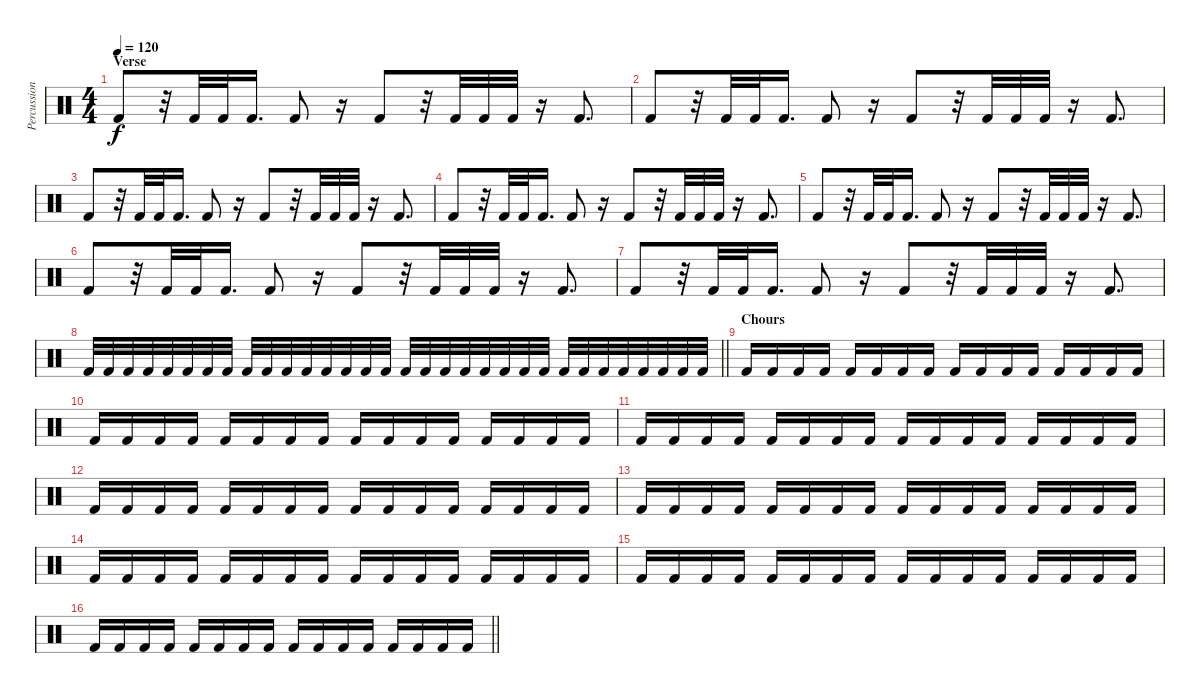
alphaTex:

\track ("Percussioni" "Percussion") {instrument percussion}
\staff
\articulation defaults
\ts (4 4)
\section ("" "Verse")
\tempo 120
\clef neutral
\ks c "Kick (hit) 2".8{dy f}
r.32 "Kick (hit) 2".32 "Kick (hit) 2".32 "Kick (hit) 2".16{d} "Kick (hit) 2".8 r.16 "Kick (hit) 2".8 r.32 "Kick (hit) 2".32 "Kick (hit) 2".32 "Kick (hit) 2".32 r.16 "Kick (hit) 2".8{d} |
"Kick (hit) 2".8 r.32 "Kick (hit) 2".32 "Kick (hit) 2".32 "Kick (hit) 2".16{d} "Kick (hit) 2".8 r.16 "Kick (hit) 2".8 r.32 "Kick (hit) 2".32 "Kick (hit) 2".32 "Kick (hit) 2".32 r.16 "Kick (hit) 2".8{d} |
"Kick (hit) 2".8 r.32 "Kick (hit) 2".32 "Kick (hit) 2".32 "Kick (hit) 2".16{d} "Kick (hit) 2".8 r.16 "Kick (hit) 2".8 r.32 "Kick (hit) 2".32 "Kick (hit) 2".32 "Kick (hit) 2".32 r.16 "Kick (hit) 2".8{d} |
"Kick (hit) 2".8 r.32 "Kick (hit) 2".32 "Kick (hit) 2".32 "Kick (hit) 2".16{d} "Kick (hit) 2".8 r.16 "Kick (hit) 2".8 r.32 "Kick (hit) 2".32 "Kick (hit) 2".32 "Kick (hit) 2".32 r.16 "Kick (hit) 2".8{d} |
"Kick (hit) 2".8 r.32 "Kick (hit) 2".32 "Kick (hit) 2".32 "Kick (hit) 2".16{d} "Kick (hit) 2".8 r.16 "Kick (hit) 2".8 r.32 "Kick (hit) 2".32 "Kick (hit) 2".32 "Kick (hit) 2".32 r.16 "Kick (hit) 2".8{d} |
"Kick (hit) 2".8 r.32 "Kick (hit) 2".32 "Kick (hit) 2".32 "Kick (hit) 2".16{d} "Kick (hit) 2".8 r.16 "Kick (hit) 2".8 r.32 "Kick (hit) 2".32 "Kick (hit) 2".32 "Kick (hit) 2".32 r.16 "Kick (hit) 2".8{d} |
"Kick (hit) 2".8 r.32 "Kick (hit) 2".32 "Kick (hit) 2".32 "Kick (hit) 2".16{d} "Kick (hit) 2".8 r.16 "Kick (hit) 2".8 r.32 "Kick (hit) 2".32 "Kick (hit) 2".32 "Kick (hit) 2".32 r.16 "Kick (hit) 2".8{d} |
\barLineRight lightlight "Kick (hit) 2".32 "Kick (hit) 2".32 "Kick (hit) 2".32 "Kick (hit) 2".32 "Kick (hit) 2".32 "Kick (hit) 2".32 "Kick (hit) 2".32 "Kick (hit) 2".32 "Kick (hit) 2".32 "Kick (hit) 2".32 "Kick (hit) 2".32 "Kick (hit) 2".32 "Kick (hit) 2".32 "Kick (hit) 2".32 "Kick (hit) 2".32 "Kick (hit) 2".32 "Kick (hit) 2".32 "Kick (hit) 2".32 "Kick (hit) 2".32 "Kick (hit) 2".32 "Kick (hit) 2".32 "Kick (hit) 2".32 "Kick (hit) 2".32 "Kick (hit) 2".32 "Kick (hit) 2".32 "Kick (hit) 2".32 "Kick (hit) 2".32 "Kick (hit) 2".32 "Kick (hit) 2".32 "Kick (hit) 2".32 "Kick (hit) 2".32 "Kick (hit) 2".32
|
\section ("" "Chours")
"Kick (hit) 2".16 "Kick (hit) 2".16 "Kick (hit) 2".16 "Kick (hit) 2".16 "Kick (hit) 2".16 "Kick (hit) 2".16 "Kick (hit) 2".16 "Kick (hit) 2".16 "Kick (hit) 2".16 "Kick (hit) 2".16 "Kick (hit) 2".16 "Kick (hit) 2".16 "Kick (hit) 2".16 "Kick (hit) 2".16 "Kick (hit) 2".16 "Kick (hit) 2".16 |
"Kick (hit) 2".16 "Kick (hit) 2".16 "Kick (hit) 2".16 "Kick (hit) 2".16 "Kick (hit) 2".16 "Kick (hit) 2".16 "Kick (hit) 2".16 "Kick (hit) 2".16 "Kick (hit) 2".16 "Kick (hit) 2".16 "Kick (hit) 2".16 "Kick (hit) 2".16 "Kick (hit) 2".16 "Kick (hit) 2".16 "Kick (hit) 2".16 "Kick (hit) 2".16 |
"Kick (hit) 2".16 "Kick (hit) 2".16 "Kick (hit) 2".16 "Kick (hit) 2".16 "Kick (hit) 2".16 "Kick (hit) 2".16 "Kick (hit) 2".16 "Kick (hit) 2".16 "Kick (hit) 2".16 "Kick (hit) 2".16 "Kick (hit) 2".16 "Kick (hit) 2".16 "Kick (hit) 2".16 "Kick (hit) 2".16 "Kick (hit) 2".16 "Kick (hit) 2".16 |
"Kick (hit) 2".16 "Kick (hit) 2".16 "Kick (hit) 2".16 "Kick (hit) 2".16 "Kick (hit) 2".16 "Kick (hit) 2".16 "Kick (hit) 2".16 "Kick (hit) 2".16 "Kick (hit) 2".16 "Kick (hit) 2".16 "Kick (hit) 2".16 "Kick (hit) 2".16 "Kick (hit) 2".16 "Kick (hit) 2".16 "Kick (hit) 2".16 "Kick (hit) 2".16 |
"Kick (hit) 2".16 "Kick (hit) 2".16 "Kick (hit) 2".16 "Kick (hit) 2".16 "Kick (hit) 2".16 "Kick (hit) 2".16 "Kick (hit) 2".16 "Kick (hit) 2".16 "Kick (hit) 2".16 "Kick (hit) 2".16 "Kick (hit) 2".16 "Kick (hit) 2".16 "Kick (hit) 2".16 "Kick (hit) 2".16 "Kick (hit) 2".16 "Kick (hit) 2".16 |
"Kick (hit) 2".16 "Kick (hit) 2".16 "Kick (hit) 2".16 "Kick (hit) 2".16 "Kick (hit) 2".16 "Kick (hit) 2".16 "Kick (hit) 2".16 "Kick (hit) 2".16 "Kick (hit) 2".16 "Kick (hit) 2".16 "Kick (hit) 2".16 "Kick (hit) 2".16 "Kick (hit) 2".16 "Kick (hit) 2".16 "Kick (hit) 2".16 "Kick (hit) 2".16 |
"Kick (hit) 2".16 "Kick (hit) 2".16 "Kick (hit) 2".16 "Kick (hit) 2".16 "Kick (hit) 2".16 "Kick (hit) 2".16 "Kick (hit) 2".16 "Kick (hit) 2".16 "Kick (hit) 2".16 "Kick (hit) 2".16 "Kick (hit) 2".16 "Kick (hit) 2".16 "Kick (hit) 2".16 "Kick (hit) 2".16 "Kick (hit) 2".16 "Kick (hit) 2".16 |
\barLineRight lightlight "Kick (hit) 2".16 "Kick (hit) 2".16 "Kick (hit) 2".16 "Kick (hit) 2".16 "Kick (hit) 2".16 "Kick (hit) 2".16 "Kick (hit) 2".16 "Kick (hit) 2".16 "Kick (hit) 2".16 "Kick (hit) 2".16 "Kick (hit) 2".16 "Kick (hit) 2".16 "Kick (hit) 2".16 "Kick (hit) 2".16 "Kick (hit) 2".16 "Kick (hit) 2".16
